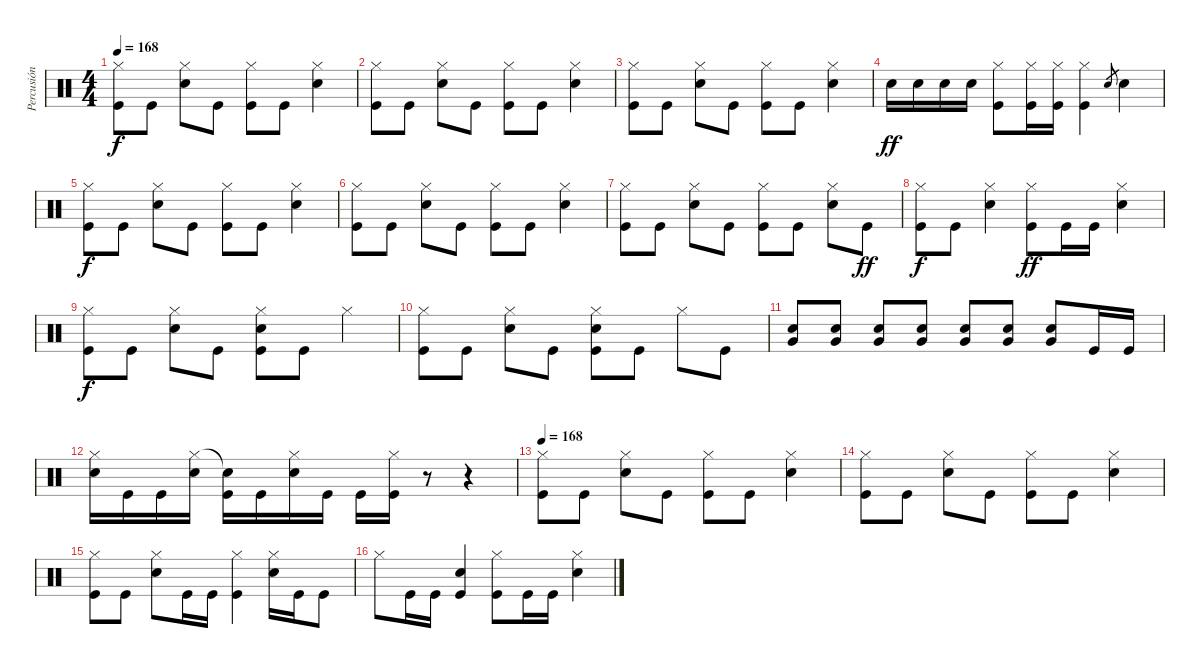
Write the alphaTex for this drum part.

\track ("Percusión" "Percusión") {instrument percussion}
\staff {score}
\articulation defaults
\ts (4 4)
\tempo 168
\clef neutral
\ks c
("Hi-Hat (closed)" "Kick (hit)").8{dy f} "Kick (hit)".8 ("Hi-Hat (closed)" "Snare (hit) 2").8 "Kick (hit)".8 ("Hi-Hat (closed)" "Kick (hit)").8 "Kick (hit)".8 ("Hi-Hat (closed)" "Snare (hit) 2").4 |
("Hi-Hat (closed)" "Kick (hit)").8 "Kick (hit)".8 ("Hi-Hat (closed)" "Snare (hit) 2").8 "Kick (hit)".8 ("Hi-Hat (closed)" "Kick (hit)").8 "Kick (hit)".8 ("Hi-Hat (closed)" "Snare (hit) 2").4 |
("Hi-Hat (closed)" "Kick (hit)").8 "Kick (hit)".8 ("Hi-Hat (closed)" "Snare (hit) 2").8 "Kick (hit)".8 ("Hi-Hat (closed)" "Kick (hit)").8 "Kick (hit)".8 ("Hi-Hat (closed)" "Snare (hit) 2").4 |
"Snare (hit) 2".16{dy ff} "Snare (hit) 2".16 "Snare (hit) 2".16 "Snare (hit) 2".16 ("Hi-Hat (closed)" "Kick (hit)").8 ("Hi-Hat (closed)" "Kick (hit)").16 ("Hi-Hat (closed)" "Kick (hit)").16 ("Hi-Hat (closed)" "Kick (hit)").4 "Snare (hit) 2".8{gr} "Snare (hit) 2".4 |
("Hi-Hat (closed)" "Kick (hit)").8{dy f} "Kick (hit)".8 ("Hi-Hat (closed)" "Snare (hit) 2").8 "Kick (hit)".8 ("Hi-Hat (closed)" "Kick (hit)").8 "Kick (hit)".8 ("Hi-Hat (closed)" "Snare (hit) 2").4 |
("Hi-Hat (closed)" "Kick (hit)").8 "Kick (hit)".8 ("Hi-Hat (closed)" "Snare (hit) 2").8 "Kick (hit)".8 ("Hi-Hat (closed)" "Kick (hit)").8 "Kick (hit)".8 ("Hi-Hat (closed)" "Snare (hit) 2").4 |
("Hi-Hat (closed)" "Kick (hit)").8 "Kick (hit)".8 ("Hi-Hat (closed)" "Snare (hit) 2").8 "Kick (hit)".8 ("Hi-Hat (closed)" "Kick (hit)").8 "Kick (hit)".8 ("Hi-Hat (closed)" "Snare (hit) 2").8 "Kick (hit)".8{dy ff} |
("Hi-Hat (closed)" "Kick (hit)").8{dy f} "Kick (hit)".8 ("Hi-Hat (closed)" "Snare (hit) 2").4 ("Hi-Hat (closed)" "Kick (hit)").8{dy ff} "Kick (hit)".16 "Kick (hit)".16 ("Hi-Hat (closed)" "Snare (hit) 2").4 |
("Hi-Hat (closed)" "Kick (hit)").8{dy f} "Kick (hit)".8 ("Hi-Hat (closed)" "Snare (hit) 2").8 "Kick (hit)".8 ("Hi-Hat (closed)" "Snare (hit) 2" "Kick (hit)").8 "Kick (hit)".8 "Hi-Hat (closed)".4 |
("Hi-Hat (closed)" "Kick (hit)").8 "Kick (hit)".8 ("Hi-Hat (closed)" "Snare (hit) 2").8 "Kick (hit)".8 ("Hi-Hat (closed)" "Snare (hit) 2" "Kick (hit)").8 "Kick (hit)".8 "Hi-Hat (closed)".8 "Kick (hit)".8 |
("Snare (hit) 2" "Very Low Tom (hit)").8 ("Snare (hit) 2" "Very Low Tom (hit)").8 ("Snare (hit) 2" "Very Low Tom (hit)").8 ("Snare (hit) 2" "Very Low Tom (hit)").8 ("Snare (hit) 2" "Very Low Tom (hit)").8 ("Snare (hit) 2" "Very Low Tom (hit)").8 ("Snare (hit) 2" "Very Low Tom (hit)").8 "Kick (hit)".16 "Kick (hit)".16 |
("Hi-Hat (closed)" "Snare (hit) 2").16 "Kick (hit)".16 "Kick (hit)".16 ("Hi-Hat (closed)" "Snare (hit) 2").16 ("Snare (hit)"{t} "Kick (hit)").16 "Kick (hit)".16 ("Hi-Hat (closed)" "Snare (hit) 2").16 "Kick (hit)".16 "Kick (hit)".16 ("Hi-Hat (closed)" "Kick (hit)").16 r.8 r.4 |
\tempo 168
("Hi-Hat (closed)" "Kick (hit)").8 "Kick (hit)".8 ("Hi-Hat (closed)" "Snare (hit) 2").8 "Kick (hit)".8 ("Hi-Hat (closed)" "Kick (hit)").8 "Kick (hit)".8 ("Hi-Hat (closed)" "Snare (hit) 2").4 |
("Hi-Hat (closed)" "Kick (hit)").8 "Kick (hit)".8 ("Hi-Hat (closed)" "Snare (hit) 2").8 "Kick (hit)".8 ("Hi-Hat (closed)" "Kick (hit)").8 "Kick (hit)".8 ("Hi-Hat (closed)" "Snare (hit) 2").4 |
("Hi-Hat (closed)" "Kick (hit)").8 "Kick (hit)".8 ("Hi-Hat (closed)" "Snare (hit) 2").8 "Kick (hit)".16 "Kick (hit)".16 ("Hi-Hat (closed)" "Kick (hit)").4 ("Hi-Hat (closed)" "Snare (hit) 2").16 "Kick (hit)".16 "Kick (hit)".8 |
"Hi-Hat (closed)".8 "Kick (hit)".16 "Kick (hit)".16 ("Snare (hit) 2" "Kick (hit)").4 ("Hi-Hat (closed)" "Kick (hit)").8 "Kick (hit)".16 "Kick (hit)".16 ("Hi-Hat (closed)" "Snare (hit) 2").4
